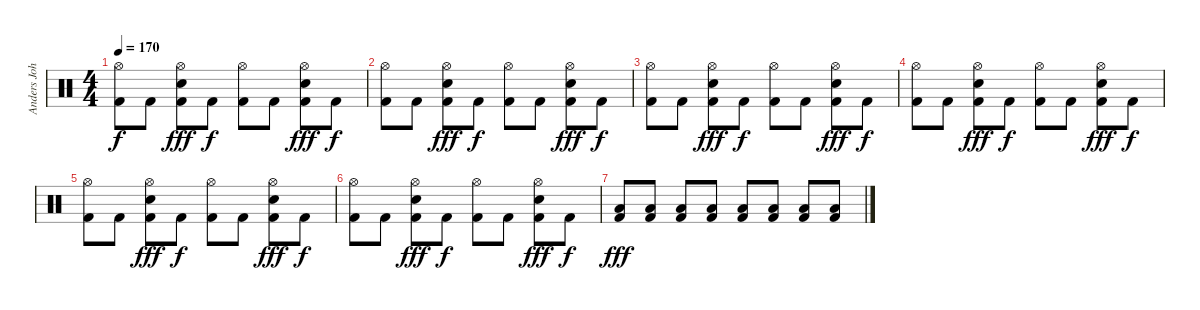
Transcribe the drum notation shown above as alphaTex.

\track ("Anders Johansson" "Anders Joh") {instrument percussion}
\staff {score}
\articulation defaults
\ts (4 4)
\tempo 170
\clef neutral
\ks c
("Hi-Hat (open)" "Kick (hit) 2").8{dy f} "Kick (hit) 2".8 ("Hi-Hat (open)" "Snare (hit) 2" "Kick (hit) 2").8{dy fff} "Kick (hit) 2".8{dy f} ("Hi-Hat (open)" "Kick (hit) 2").8 "Kick (hit) 2".8 ("Hi-Hat (open)" "Snare (hit) 2" "Kick (hit) 2").8{dy fff} "Kick (hit) 2".8{dy f} |
("Hi-Hat (open)" "Kick (hit) 2").8 "Kick (hit) 2".8 ("Hi-Hat (open)" "Snare (hit) 2" "Kick (hit) 2").8{dy fff} "Kick (hit) 2".8{dy f} ("Hi-Hat (open)" "Kick (hit) 2").8 "Kick (hit) 2".8 ("Hi-Hat (open)" "Snare (hit) 2" "Kick (hit) 2").8{dy fff} "Kick (hit) 2".8{dy f} |
("Hi-Hat (open)" "Kick (hit) 2").8 "Kick (hit) 2".8 ("Hi-Hat (open)" "Snare (hit) 2" "Kick (hit) 2").8{dy fff} "Kick (hit) 2".8{dy f} ("Hi-Hat (open)" "Kick (hit) 2").8 "Kick (hit) 2".8 ("Hi-Hat (open)" "Snare (hit) 2" "Kick (hit) 2").8{dy fff} "Kick (hit) 2".8{dy f} |
("Hi-Hat (open)" "Kick (hit) 2").8 "Kick (hit) 2".8 ("Hi-Hat (open)" "Snare (hit) 2" "Kick (hit) 2").8{dy fff} "Kick (hit) 2".8{dy f} ("Hi-Hat (open)" "Kick (hit) 2").8 "Kick (hit) 2".8 ("Hi-Hat (open)" "Snare (hit) 2" "Kick (hit) 2").8{dy fff} "Kick (hit) 2".8{dy f} |
("Hi-Hat (open)" "Kick (hit) 2").8 "Kick (hit) 2".8 ("Hi-Hat (open)" "Snare (hit) 2" "Kick (hit) 2").8{dy fff} "Kick (hit) 2".8{dy f} ("Hi-Hat (open)" "Kick (hit) 2").8 "Kick (hit) 2".8 ("Hi-Hat (open)" "Snare (hit) 2" "Kick (hit) 2").8{dy fff} "Kick (hit) 2".8{dy f} |
("Hi-Hat (open)" "Kick (hit) 2").8 "Kick (hit) 2".8 ("Hi-Hat (open)" "Snare (hit) 2" "Kick (hit) 2").8{dy fff} "Kick (hit) 2".8{dy f} ("Hi-Hat (open)" "Kick (hit) 2").8 "Kick (hit) 2".8 ("Hi-Hat (open)" "Snare (hit) 2" "Kick (hit) 2").8{dy fff} "Kick (hit) 2".8{dy f} |
("Low Tom (hit)" "Kick (hit) 2").8{dy fff} ("Low Tom (hit)" "Kick (hit) 2").8 ("Low Tom (hit)" "Kick (hit) 2").8 ("Low Tom (hit)" "Kick (hit) 2").8 ("Low Tom (hit)" "Kick (hit) 2").8 ("Low Tom (hit)" "Kick (hit) 2").8 ("Low Tom (hit)" "Kick (hit) 2").8 ("Low Tom (hit)" "Kick (hit) 2").8
